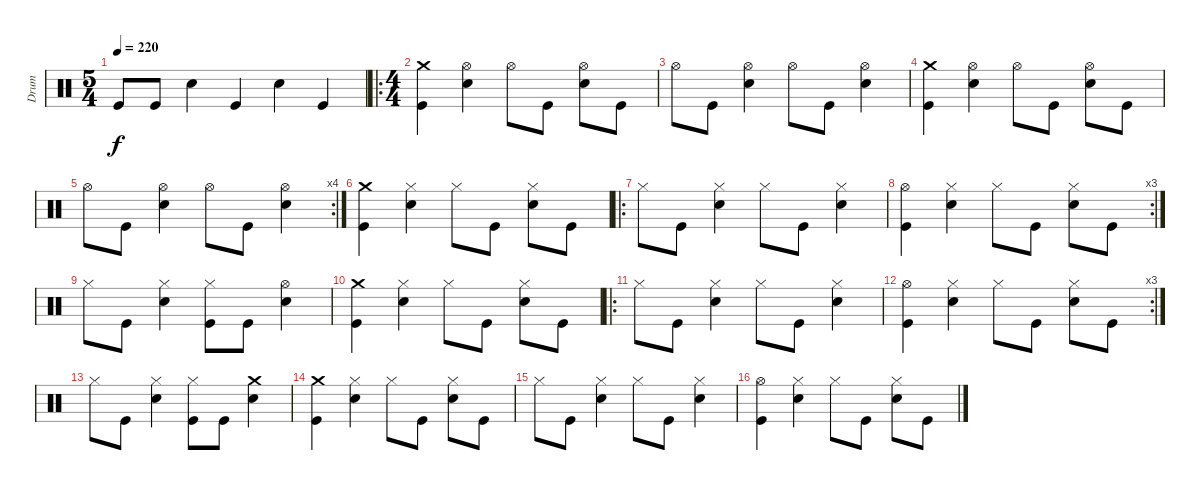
\track ("Drum" "Drum") {instrument percussion}
\staff {score}
\articulation defaults
\ts (5 4)
\tempo 220
\clef neutral
\ks c "Kick (hit)".8{dy f} "Kick (hit)".8 "Snare (hit) 2".4 "Kick (hit)".4 "Snare (hit) 2".4 "Kick (hit)".4
|
\ro
\ts (4 4)
("Crash medium (hit)" "Kick (hit)").4 ("Hi-Hat (open)" "Snare (hit) 2").4 "Hi-Hat (open)".8 "Kick (hit)".8 ("Hi-Hat (open)" "Snare (hit) 2").8 "Kick (hit)".8 |
"Hi-Hat (open)".8 "Kick (hit)".8 ("Hi-Hat (open)" "Snare (hit) 2").4 "Hi-Hat (open)".8 "Kick (hit)".8 ("Hi-Hat (open)" "Snare (hit) 2").4 |
("Crash medium (hit)" "Kick (hit)").4 ("Hi-Hat (open)" "Snare (hit) 2").4 "Hi-Hat (open)".8 "Kick (hit)".8 ("Hi-Hat (open)" "Snare (hit) 2").8 "Kick (hit)".8 |
\rc 4 "Hi-Hat (open)".8 "Kick (hit)".8
("Hi-Hat (open)" "Snare (hit) 2").4 "Hi-Hat (open)".8 "Kick (hit)".8 ("Hi-Hat (open)" "Snare (hit) 2").4 |
("Crash medium (hit)" "Kick (hit)").4 ("Hi-Hat (closed)" "Snare (hit) 2").4 "Hi-Hat (closed)".8 "Kick (hit)".8 ("Hi-Hat (closed)" "Snare (hit) 2").8 "Kick (hit)".8 |
\ro "Hi-Hat (closed)".8 "Kick (hit)".8
("Hi-Hat (closed)" "Snare (hit) 2").4 "Hi-Hat (closed)".8 "Kick (hit)".8 ("Hi-Hat (closed)" "Snare (hit) 2").4 |
\rc 3
("Hi-Hat (open)" "Kick (hit)").4 ("Hi-Hat (closed)" "Snare (hit) 2").4 "Hi-Hat (closed)".8 "Kick (hit)".8 ("Hi-Hat (closed)" "Snare (hit) 2").8 "Kick (hit)".8 |
"Hi-Hat (closed)".8 "Kick (hit)".8 ("Hi-Hat (closed)" "Snare (hit) 2").4 ("Hi-Hat (closed)" "Kick (hit)").8 "Kick (hit)".8 ("Hi-Hat (open)" "Snare (hit) 2").4 |
("Crash medium (hit)" "Kick (hit)").4 ("Hi-Hat (closed)" "Snare (hit) 2").4 "Hi-Hat (closed)".8 "Kick (hit)".8 ("Hi-Hat (closed)" "Snare (hit) 2").8 "Kick (hit)".8 |
\ro "Hi-Hat (closed)".8 "Kick (hit)".8
("Hi-Hat (closed)" "Snare (hit) 2").4 "Hi-Hat (closed)".8 "Kick (hit)".8 ("Hi-Hat (closed)" "Snare (hit) 2").4 |
\rc 3
("Hi-Hat (open)" "Kick (hit)").4 ("Hi-Hat (closed)" "Snare (hit) 2").4 "Hi-Hat (closed)".8 "Kick (hit)".8 ("Hi-Hat (closed)" "Snare (hit) 2").8 "Kick (hit)".8 |
"Hi-Hat (closed)".8 "Kick (hit)".8 ("Hi-Hat (closed)" "Snare (hit) 2").4 ("Hi-Hat (closed)" "Kick (hit)").8 "Kick (hit)".8 ("Crash medium (hit)" "Snare (hit) 2").4 |
("Crash medium (hit)" "Kick (hit)").4 ("Hi-Hat (closed)" "Snare (hit) 2").4 "Hi-Hat (closed)".8 "Kick (hit)".8 ("Hi-Hat (closed)" "Snare (hit) 2").8 "Kick (hit)".8 |
"Hi-Hat (closed)".8 "Kick (hit)".8 ("Hi-Hat (closed)" "Snare (hit) 2").4 "Hi-Hat (closed)".8 "Kick (hit)".8 ("Hi-Hat (closed)" "Snare (hit) 2").4 |
("Hi-Hat (open)" "Kick (hit)").4 ("Hi-Hat (closed)" "Snare (hit) 2").4 "Hi-Hat (closed)".8 "Kick (hit)".8 ("Hi-Hat (closed)" "Snare (hit) 2").8 "Kick (hit)".8
